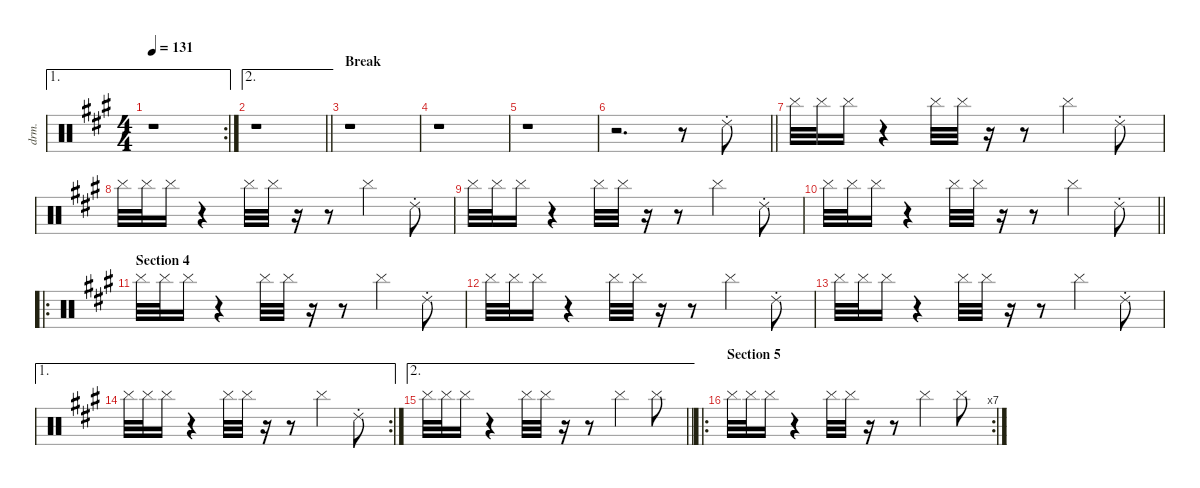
\defaultSystemsLayout 4
\hideDynamics
\bracketExtendMode nobrackets
\otherSystemsTrackNameOrientation horizontal
\track ("Scratchpad" "drm.") {defaultSystemsLayout 8 instrument percussion}
\staff {score}
\articulation defaults
\ae 1
\rc 2
\ts (4 4)
\tempo 131
\clef neutral
\ks f#minor
r.1{dy mf beam Down} |
\ae 2
\barLineRight lightlight
r.1{beam Down} |
\section ("" "Break")
r.1{beam Down} |
r.1{beam Down} |
r.1{beam Down} |
\barLineRight lightlight
r.2{d beam Down} r.8{beam Down} "Ride (choke) 2"{acc forcenatural}.8{beam Down} |
"Cymbal (hit)"{acc forcenatural}.32{beam Down} "Cymbal (hit)"{acc forcenatural}.32{beam Down} "Cymbal (hit)"{acc forcenatural}.16{beam Down} r.4{beam Down} "Cymbal (hit)"{acc forcenatural}.32{beam Down} "Cymbal (hit)"{acc forcenatural}.32{beam Down} r.16{beam Down} r.8{beam Down} "Cymbal (hit)"{acc forcenatural}.4{beam Down} "Ride (choke) 2"{acc forcenatural}.8{beam Down} |
"Cymbal (hit)"{acc forcenatural}.32{beam Down} "Cymbal (hit)"{acc forcenatural}.32{beam Down} "Cymbal (hit)"{acc forcenatural}.16{beam Down} r.4{beam Down} "Cymbal (hit)"{acc forcenatural}.32{beam Down} "Cymbal (hit)"{acc forcenatural}.32{beam Down} r.16{beam Down} r.8{beam Down} "Cymbal (hit)"{acc forcenatural}.4{beam Down} "Ride (choke) 2"{acc forcenatural}.8{beam Down} |
"Cymbal (hit)"{acc forcenatural}.32{beam Down} "Cymbal (hit)"{acc forcenatural}.32{beam Down} "Cymbal (hit)"{acc forcenatural}.16{beam Down} r.4{beam Down} "Cymbal (hit)"{acc forcenatural}.32{beam Down} "Cymbal (hit)"{acc forcenatural}.32{beam Down} r.16{beam Down} r.8{beam Down} "Cymbal (hit)"{acc forcenatural}.4{beam Down} "Ride (choke) 2"{acc forcenatural}.8{beam Down} |
\barLineRight lightlight "Cymbal (hit)"{acc forcenatural}.32{beam Down} "Cymbal (hit)"{acc forcenatural}.32{beam Down} "Cymbal (hit)"{acc forcenatural}.16{beam Down}
r.4{beam Down} "Cymbal (hit)"{acc forcenatural}.32{beam Down} "Cymbal (hit)"{acc forcenatural}.32{beam Down} r.16{beam Down} r.8{beam Down} "Cymbal (hit)"{acc forcenatural}.4{beam Down} "Ride (choke) 2"{acc forcenatural}.8{beam Down} |
\ro
\section ("" "Section 4")
"Cymbal (hit)"{acc forcenatural}.32{beam Down} "Cymbal (hit)"{acc forcenatural}.32{beam Down} "Cymbal (hit)"{acc forcenatural}.16{beam Down} r.4{beam Down} "Cymbal (hit)"{acc forcenatural}.32{beam Down} "Cymbal (hit)"{acc forcenatural}.32{beam Down} r.16{beam Down} r.8{beam Down} "Cymbal (hit)"{acc forcenatural}.4{beam Down} "Ride (choke) 2"{acc forcenatural}.8{beam Down} |
"Cymbal (hit)"{acc forcenatural}.32{beam Down} "Cymbal (hit)"{acc forcenatural}.32{beam Down} "Cymbal (hit)"{acc forcenatural}.16{beam Down} r.4{beam Down} "Cymbal (hit)"{acc forcenatural}.32{beam Down} "Cymbal (hit)"{acc forcenatural}.32{beam Down} r.16{beam Down} r.8{beam Down} "Cymbal (hit)"{acc forcenatural}.4{beam Down} "Ride (choke) 2"{acc forcenatural}.8{beam Down} |
"Cymbal (hit)"{acc forcenatural}.32{beam Down} "Cymbal (hit)"{acc forcenatural}.32{beam Down} "Cymbal (hit)"{acc forcenatural}.16{beam Down} r.4{beam Down} "Cymbal (hit)"{acc forcenatural}.32{beam Down} "Cymbal (hit)"{acc forcenatural}.32{beam Down} r.16{beam Down} r.8{beam Down} "Cymbal (hit)"{acc forcenatural}.4{beam Down} "Ride (choke) 2"{acc forcenatural}.8{beam Down} |
\ae 1
\rc 2 "Cymbal (hit)"{acc forcenatural}.32{beam Down} "Cymbal (hit)"{acc forcenatural}.32{beam Down} "Cymbal (hit)"{acc forcenatural}.16{beam Down}
r.4{beam Down} "Cymbal (hit)"{acc forcenatural}.32{beam Down} "Cymbal (hit)"{acc forcenatural}.32{beam Down} r.16{beam Down} r.8{beam Down} "Cymbal (hit)"{acc forcenatural}.4{beam Down} "Ride (choke) 2"{acc forcenatural}.8{beam Down} |
\ae 2
\barLineRight lightlight "Cymbal (hit)"{acc forcenatural}.32{beam Down} "Cymbal (hit)"{acc forcenatural}.32{beam Down} "Cymbal (hit)"{acc forcenatural}.16{beam Down}
r.4{beam Down} "Cymbal (hit)"{acc forcenatural}.32{beam Down} "Cymbal (hit)"{acc forcenatural}.32{beam Down} r.16{beam Down} r.8{beam Down} "Cymbal (hit)"{acc forcenatural}.4{beam Down} "Cymbal (hit)"{acc forcenatural}.8{beam Down} |
\ro
\rc 7
\section ("" "Section 5")
"Cymbal (hit)"{acc forcenatural}.32{beam Down} "Cymbal (hit)"{acc forcenatural}.32{beam Down} "Cymbal (hit)"{acc forcenatural}.16{beam Down} r.4{beam Down} "Cymbal (hit)"{acc forcenatural}.32{beam Down} "Cymbal (hit)"{acc forcenatural}.32{beam Down} r.16{beam Down} r.8{beam Down} "Cymbal (hit)"{acc forcenatural}.4{beam Down} "Cymbal (hit)"{acc forcenatural}.8{beam Down}
